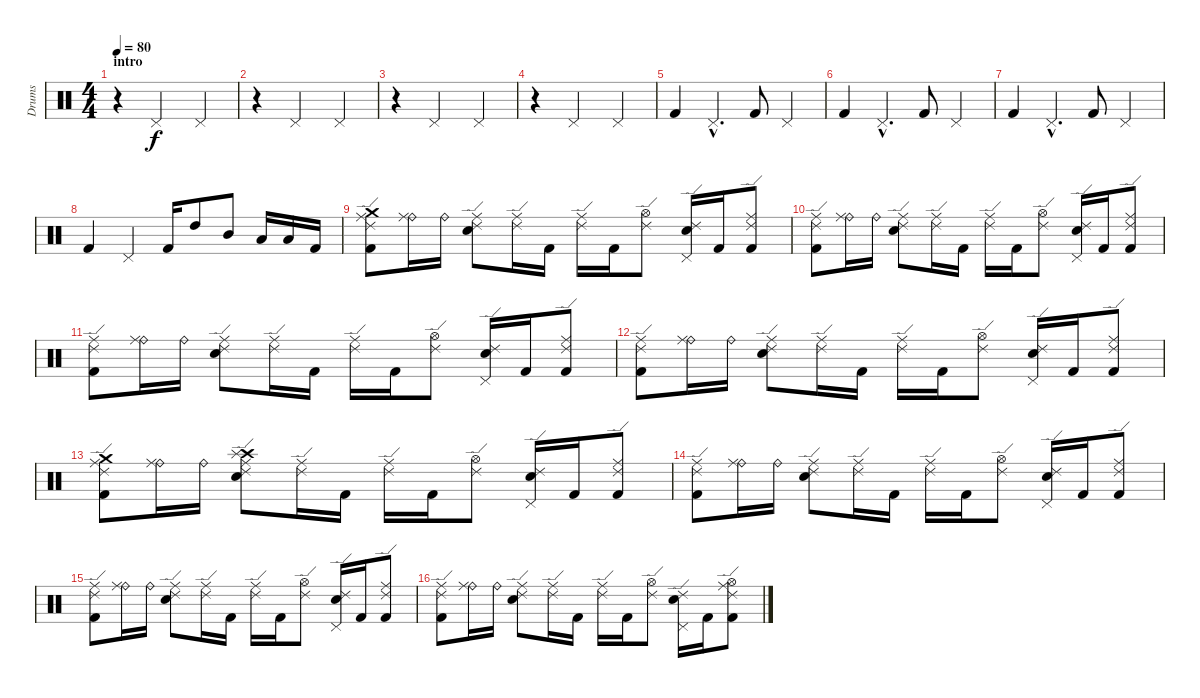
\track ("Drums" "Drums") {instrument percussion}
\staff {score}
\articulation defaults
\ts (4 4)
\section ("" "intro")
\tempo 80
\clef neutral
\ks c
r.4{dy f} "Pedal Hi-Hat (hit)".2 "Pedal Hi-Hat (hit)".4 |
r.4 "Pedal Hi-Hat (hit)".2 "Pedal Hi-Hat (hit)".4 |
r.4 "Pedal Hi-Hat (hit)".2 "Pedal Hi-Hat (hit)".4 |
r.4 "Pedal Hi-Hat (hit)".2 "Pedal Hi-Hat (hit)".4 |
"Kick (hit) 2".4 "Pedal Hi-Hat (hit)"{hac}.4{d} "Kick (hit) 2".8 "Pedal Hi-Hat (hit)".4 |
"Kick (hit) 2".4 "Pedal Hi-Hat (hit)"{hac}.4{d} "Kick (hit) 2".8 "Pedal Hi-Hat (hit)".4 |
"Kick (hit) 2".4 "Pedal Hi-Hat (hit)"{hac}.4{d} "Kick (hit) 2".8 "Pedal Hi-Hat (hit)".4 |
"Kick (hit) 2".4 "Pedal Hi-Hat (hit)".4 "Kick (hit) 2".16 "High Tom (hit)".8 "Mid Tom (hit)".8 "Low Tom (hit)".16 "Low Tom (hit)".16 "Kick (hit) 2".16 |
("Ride (edge) 2" "Ride (middle)" "Crash medium (hit)" "Kick (hit) 2").8 ("Ride (bell)" "Ride (middle)").16 "Ride (bell)".16 ("Ride (middle)" "Ride (edge) 2" "Snare (hit) 2").8 ("Ride (edge) 2" "Ride (middle)").16 "Kick (hit) 2".16 ("Ride (edge) 2" "Ride (middle)").16 "Kick (hit) 2".16 ("Ride (edge) 2" "Hi-Hat (open)").8 ("Ride (edge) 2" "Pedal Hi-Hat (hit)" "Snare (hit) 2").16 "Kick (hit) 2".16 ("Ride (edge) 2" "Ride (middle)" "Kick (hit) 2").8 |
("Ride (edge) 2" "Ride (middle)" "Kick (hit) 2").8 ("Ride (bell)" "Ride (middle)").16 "Ride (bell)".16 ("Ride (middle)" "Ride (edge) 2" "Snare (hit) 2").8 ("Ride (edge) 2" "Ride (middle)").16 "Kick (hit) 2".16 ("Ride (edge) 2" "Ride (middle)").16 "Kick (hit) 2".16 ("Ride (edge) 2" "Hi-Hat (open)").8 ("Ride (edge) 2" "Pedal Hi-Hat (hit)" "Snare (hit) 2").16 "Kick (hit) 2".16 ("Ride (edge) 2" "Ride (middle)" "Kick (hit) 2").8 |
("Ride (edge) 2" "Ride (middle)" "Kick (hit) 2").8 ("Ride (bell)" "Ride (middle)").16 "Ride (bell)".16 ("Ride (middle)" "Ride (edge) 2" "Snare (hit) 2").8 ("Ride (edge) 2" "Ride (middle)").16 "Kick (hit) 2".16 ("Ride (edge) 2" "Ride (middle)").16 "Kick (hit) 2".16 ("Ride (edge) 2" "Hi-Hat (open)").8 ("Ride (edge) 2" "Pedal Hi-Hat (hit)" "Snare (hit) 2").16 "Kick (hit) 2".16 ("Ride (edge) 2" "Ride (middle)" "Kick (hit) 2").8 |
("Ride (edge) 2" "Ride (middle)" "Kick (hit) 2").8 ("Ride (bell)" "Ride (middle)").16 "Ride (bell)".16 ("Ride (middle)" "Ride (edge) 2" "Snare (hit) 2").8 ("Ride (edge) 2" "Ride (middle)").16 "Kick (hit) 2".16 ("Ride (edge) 2" "Ride (middle)").16 "Kick (hit) 2".16 ("Ride (edge) 2" "Hi-Hat (open)").8 ("Ride (edge) 2" "Pedal Hi-Hat (hit)" "Snare (hit) 2").16 "Kick (hit) 2".16 ("Ride (edge) 2" "Ride (middle)" "Kick (hit) 2").8 |
("Ride (edge) 2" "Ride (middle)" "Crash medium (hit)" "Kick (hit) 2").8 ("Ride (bell)" "Ride (middle)").16 "Ride (bell)".16 ("Ride (middle)" "Ride (edge) 2" "Crash high (hit)" "Snare (hit) 2" "Splash (hit)").8 ("Ride (edge) 2" "Ride (middle)").16 "Kick (hit) 2".16 ("Ride (edge) 2" "Ride (middle)").16 "Kick (hit) 2".16 ("Ride (edge) 2" "Hi-Hat (open)").8 ("Ride (edge) 2" "Pedal Hi-Hat (hit)" "Snare (hit) 2").16 "Kick (hit) 2".16 ("Ride (edge) 2" "Ride (middle)" "Kick (hit) 2").8 |
("Ride (edge) 2" "Ride (middle)" "Kick (hit) 2").8 ("Ride (bell)" "Ride (middle)").16 "Ride (bell)".16 ("Ride (middle)" "Ride (edge) 2" "Snare (hit) 2").8 ("Ride (edge) 2" "Ride (middle)").16 "Kick (hit) 2".16 ("Ride (edge) 2" "Ride (middle)").16 "Kick (hit) 2".16 ("Ride (edge) 2" "Hi-Hat (open)").8 ("Ride (edge) 2" "Pedal Hi-Hat (hit)" "Snare (hit) 2").16 "Kick (hit) 2".16 ("Ride (edge) 2" "Ride (middle)" "Kick (hit) 2").8 |
("Ride (edge) 2" "Ride (middle)" "Kick (hit) 2").8 ("Ride (bell)" "Ride (middle)").16 "Ride (bell)".16 ("Ride (middle)" "Ride (edge) 2" "Snare (hit) 2").8 ("Ride (edge) 2" "Ride (middle)").16 "Kick (hit) 2".16 ("Ride (edge) 2" "Ride (middle)").16 "Kick (hit) 2".16 ("Ride (edge) 2" "Hi-Hat (open)").8 ("Ride (edge) 2" "Pedal Hi-Hat (hit)" "Snare (hit) 2").16 "Kick (hit) 2".16 ("Ride (edge) 2" "Ride (middle)" "Kick (hit) 2").8 |
("Ride (edge) 2" "Ride (middle)" "Kick (hit) 2").8 ("Ride (bell)" "Ride (middle)").16 "Ride (bell)".16 ("Ride (middle)" "Ride (edge) 2" "Snare (hit) 2").8 ("Ride (edge) 2" "Ride (middle)").16 "Kick (hit) 2".16 ("Ride (edge) 2" "Ride (middle)").16 "Kick (hit) 2".16 ("Ride (edge) 2" "Hi-Hat (open)").8 ("Ride (edge) 2" "Pedal Hi-Hat (hit)" "Snare (hit) 2").16 "Kick (hit) 2".16 ("Ride (edge) 2" "Ride (middle)" "Hi-Hat (open)" "Kick (hit) 2").8
